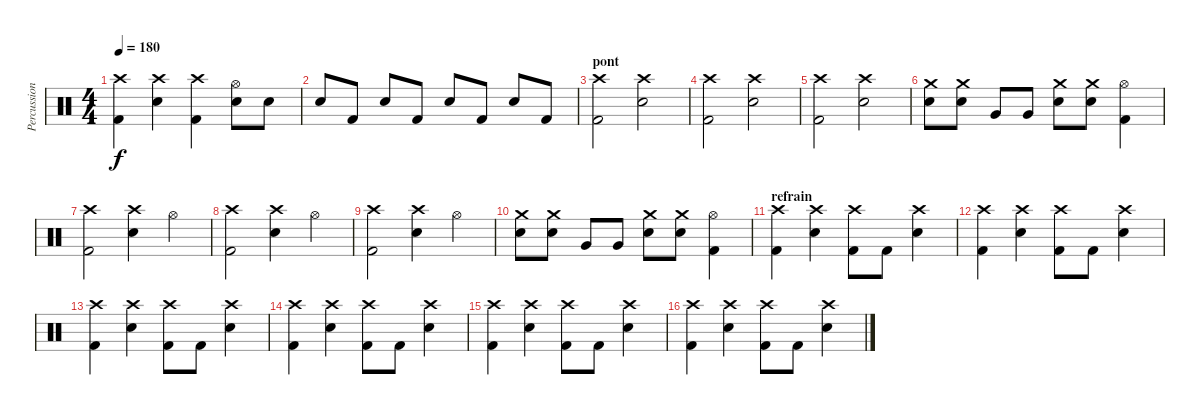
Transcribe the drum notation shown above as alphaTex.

\track ("Percussions" "Percussion") {instrument percussion}
\staff {score}
\articulation defaults
\ts (4 4)
\tempo 180
\clef neutral
\ks c
("Crash high (hit)" "Kick (hit) 2").4{dy f} ("Crash high (hit)" "Snare (hit) 2").4 ("Crash high (hit)" "Kick (hit) 2").4 ("Hi-Hat (open)" "Snare (hit) 2").8 "Snare (hit) 2".8 |
"Snare (hit) 2".8 "Kick (hit) 2".8 "Snare (hit) 2".8 "Kick (hit) 2".8 "Snare (hit) 2".8 "Kick (hit) 2".8 "Snare (hit) 2".8 "Kick (hit) 2".8 |
\section ("" "pont")
("Crash high (hit)" "Kick (hit) 2").2 ("Crash high (hit)" "Snare (hit) 2").2 |
("Crash high (hit)" "Kick (hit) 2").2 ("Crash high (hit)" "Snare (hit) 2").2 |
("Crash high (hit)" "Kick (hit) 2").2 ("Crash high (hit)" "Snare (hit) 2").2 |
("Crash medium (hit)" "Snare (hit) 2").8 ("Crash medium (hit)" "Snare (hit) 2").8 "Very Low Tom (hit)".8 "Very Low Tom (hit)".8 ("Crash medium (hit)" "Snare (hit) 2").8 ("Crash medium (hit)" "Snare (hit) 2").8 ("Hi-Hat (open)" "Kick (hit) 2").4 |
("Crash high (hit)" "Kick (hit) 2").2 ("Crash high (hit)" "Snare (hit) 2").4 "Hi-Hat (open)".4 |
("Crash high (hit)" "Kick (hit) 2").2 ("Crash high (hit)" "Snare (hit) 2").4 "Hi-Hat (open)".4 |
("Crash high (hit)" "Kick (hit) 2").2 ("Crash high (hit)" "Snare (hit) 2").4 "Hi-Hat (open)".4 |
("Crash medium (hit)" "Snare (hit) 2").8 ("Crash medium (hit)" "Snare (hit) 2").8 "Very Low Tom (hit)".8 "Very Low Tom (hit)".8 ("Crash medium (hit)" "Snare (hit) 2").8 ("Crash medium (hit)" "Snare (hit) 2").8 ("Hi-Hat (open)" "Kick (hit) 2").4 |
\section ("" "refrain")
("Crash high (hit)" "Kick (hit) 2").4 ("Crash high (hit)" "Snare (hit) 2").4 ("Crash high (hit)" "Kick (hit) 2").8 "Kick (hit) 2".8 ("Crash high (hit)" "Snare (hit) 2").4 |
("Crash high (hit)" "Kick (hit) 2").4 ("Crash high (hit)" "Snare (hit) 2").4 ("Crash high (hit)" "Kick (hit) 2").8 "Kick (hit) 2".8 ("Crash high (hit)" "Snare (hit) 2").4 |
("Crash high (hit)" "Kick (hit) 2").4 ("Crash high (hit)" "Snare (hit) 2").4 ("Crash high (hit)" "Kick (hit) 2").8 "Kick (hit) 2".8 ("Crash high (hit)" "Snare (hit) 2").4 |
("Crash high (hit)" "Kick (hit) 2").4 ("Crash high (hit)" "Snare (hit) 2").4 ("Crash high (hit)" "Kick (hit) 2").8 "Kick (hit) 2".8 ("Crash high (hit)" "Snare (hit) 2").4 |
("Crash high (hit)" "Kick (hit) 2").4 ("Crash high (hit)" "Snare (hit) 2").4 ("Crash high (hit)" "Kick (hit) 2").8 "Kick (hit) 2".8 ("Crash high (hit)" "Snare (hit) 2").4 |
("Crash high (hit)" "Kick (hit) 2").4 ("Crash high (hit)" "Snare (hit) 2").4 ("Crash high (hit)" "Kick (hit) 2").8 "Kick (hit) 2".8 ("Crash high (hit)" "Snare (hit) 2").4
